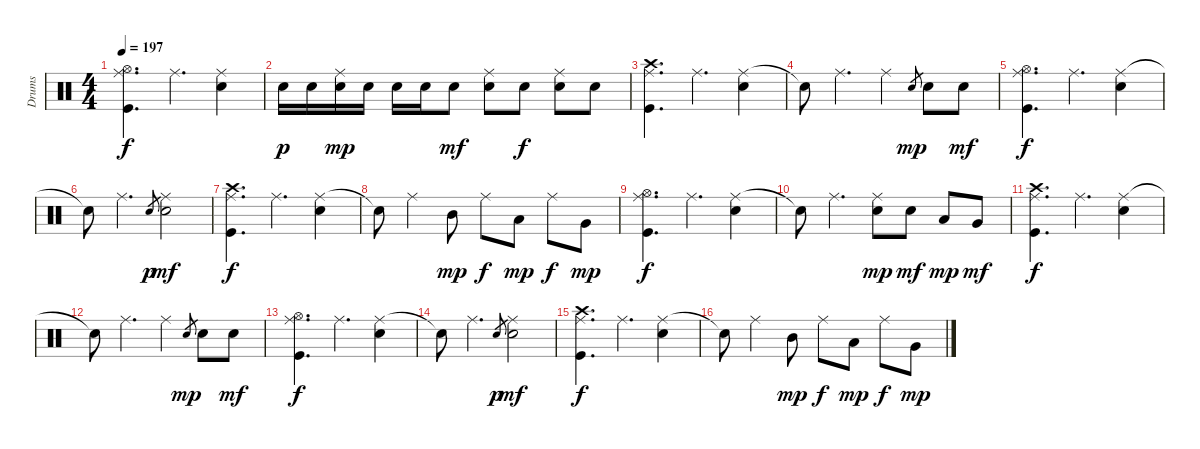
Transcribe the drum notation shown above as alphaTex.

\track ("Drums" "Drums") {instrument percussion}
\staff {score}
\articulation defaults
\ts (4 4)
\tempo 197
\clef neutral
\ks c
("Hi-Hat (open)" "Ride (middle)" "Kick (hit)").4{d dy f} "Ride (middle)".4{d} ("Ride (middle)" "Electric Snare (hit)").4 |
"Electric Snare (hit)".16{dy p} "Electric Snare (hit)".16 ("Ride (middle)" "Electric Snare (hit)").16{dy mp} "Electric Snare (hit)".16 "Electric Snare (hit)".16 "Electric Snare (hit)".16 "Electric Snare (hit)".8{dy mf} ("Ride (middle)" "Electric Snare (hit)").8 "Electric Snare (hit)".8{dy f} ("Ride (middle)" "Electric Snare (hit)").8 "Electric Snare (hit)".8 |
("Crash high (hit)" "Ride (middle)" "Kick (hit)").4{d} "Ride (middle)".4{d} ("Ride (middle)" "Electric Snare (hit)").4 |
"Snare (hit)"{t}.8 "Ride (middle)".4{d} "Ride (middle)".4 "Electric Snare (hit)".8{gr dy mp} "Electric Snare (hit)".8 "Electric Snare (hit)".8{dy mf} |
("Hi-Hat (open)" "Ride (middle)" "Kick (hit)").4{d dy f} "Ride (middle)".4{d} ("Ride (middle)" "Electric Snare (hit)").4 |
"Snare (hit)"{t}.8 "Ride (middle)".4{d} "Electric Snare (hit)".8{gr dy p} ("Ride (middle)" "Electric Snare (hit)").2{dy mf} |
("Crash high (hit)" "Ride (middle)" "Kick (hit)").4{d dy f} "Ride (middle)".4{d} ("Ride (middle)" "Electric Snare (hit)").4 |
"Snare (hit)"{t}.8 "Ride (middle)".4 "Mid Tom (hit)".8{dy mp} "Ride (middle)".8{dy f} "Low Tom (hit)".8{dy mp} "Ride (middle)".8{dy f} "Very Low Tom (hit)".8{dy mp} |
("Hi-Hat (open)" "Ride (middle)" "Kick (hit)").4{d dy f} "Ride (middle)".4{d} ("Ride (middle)" "Electric Snare (hit)").4 |
"Snare (hit)"{t}.8 "Ride (middle)".4{d} ("Ride (middle)" "Electric Snare (hit)").8{dy mp} "Electric Snare (hit)".8{dy mf} "Low Tom (hit)".8{dy mp} "Very Low Tom (hit)".8{dy mf} |
("Crash high (hit)" "Ride (middle)" "Kick (hit)").4{d dy f} "Ride (middle)".4{d} ("Ride (middle)" "Electric Snare (hit)").4 |
"Snare (hit)"{t}.8 "Ride (middle)".4{d} "Ride (middle)".4 "Electric Snare (hit)".8{gr dy mp} "Electric Snare (hit)".8 "Electric Snare (hit)".8{dy mf} |
("Hi-Hat (open)" "Ride (middle)" "Kick (hit)").4{d dy f} "Ride (middle)".4{d} ("Ride (middle)" "Electric Snare (hit)").4 |
"Snare (hit)"{t}.8 "Ride (middle)".4{d} "Electric Snare (hit)".8{gr dy p} ("Ride (middle)" "Electric Snare (hit)").2{dy mf} |
("Crash high (hit)" "Ride (middle)" "Kick (hit)").4{d dy f} "Ride (middle)".4{d} ("Ride (middle)" "Electric Snare (hit)").4 |
"Snare (hit)"{t}.8 "Ride (middle)".4 "Mid Tom (hit)".8{dy mp} "Ride (middle)".8{dy f} "Low Tom (hit)".8{dy mp} "Ride (middle)".8{dy f} "Very Low Tom (hit)".8{dy mp}
